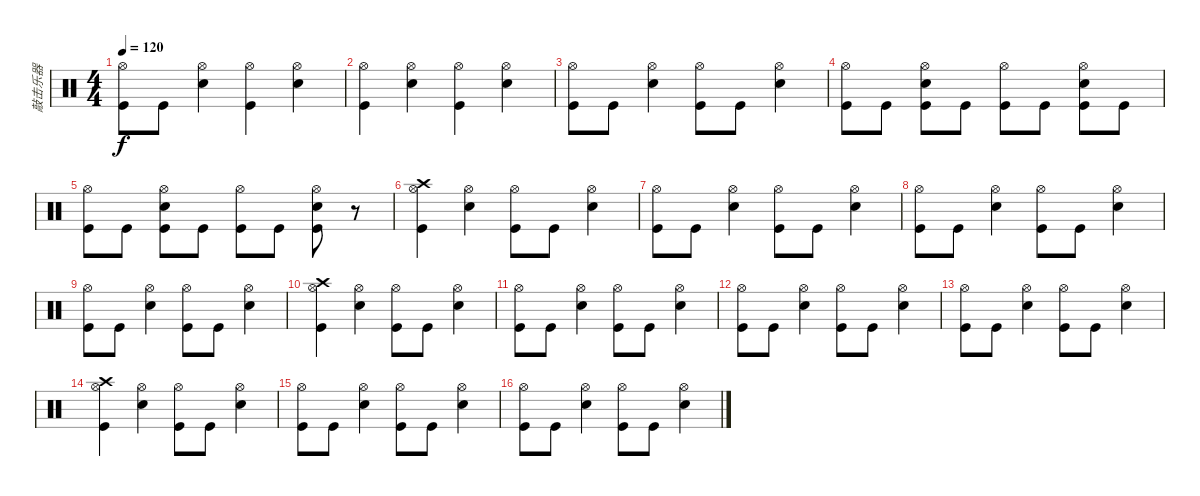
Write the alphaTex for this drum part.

\track ("敲击乐器" "敲击乐器") {instrument percussion}
\staff {score}
\articulation defaults
\ts (4 4)
\tempo 120
\clef neutral
\ks c
("Hi-Hat (open)" "Kick (hit)").8{dy f} "Kick (hit)".8 ("Hi-Hat (open)" "Snare (hit) 2").4 ("Hi-Hat (open)" "Kick (hit)").4 ("Hi-Hat (open)" "Snare (hit) 2").4 |
("Hi-Hat (open)" "Kick (hit)").4 ("Hi-Hat (open)" "Snare (hit) 2").4 ("Hi-Hat (open)" "Kick (hit)").4 ("Hi-Hat (open)" "Snare (hit) 2").4 |
("Hi-Hat (open)" "Kick (hit)").8 "Kick (hit)".8 ("Hi-Hat (open)" "Snare (hit) 2").4 ("Hi-Hat (open)" "Kick (hit)").8 "Kick (hit)".8 ("Hi-Hat (open)" "Snare (hit) 2").4 |
("Hi-Hat (open)" "Kick (hit)").8 "Kick (hit)".8 ("Hi-Hat (open)" "Snare (hit) 2" "Kick (hit)").8 "Kick (hit)".8 ("Hi-Hat (open)" "Kick (hit)").8 "Kick (hit)".8 ("Hi-Hat (open)" "Snare (hit) 2" "Kick (hit)").8 "Kick (hit)".8 |
("Hi-Hat (open)" "Kick (hit)").8 "Kick (hit)".8 ("Hi-Hat (open)" "Snare (hit) 2" "Kick (hit)").8 "Kick (hit)".8 ("Hi-Hat (open)" "Kick (hit)").8 "Kick (hit)".8 ("Hi-Hat (open)" "Snare (hit) 2" "Kick (hit)").8 r.8 |
("Crash high (hit)" "Hi-Hat (open)" "Kick (hit)").4 ("Hi-Hat (open)" "Snare (hit) 2").4 ("Hi-Hat (open)" "Kick (hit)").8 "Kick (hit)".8 ("Hi-Hat (open)" "Snare (hit) 2").4 |
("Hi-Hat (open)" "Kick (hit)").8 "Kick (hit)".8 ("Hi-Hat (open)" "Snare (hit) 2").4 ("Hi-Hat (open)" "Kick (hit)").8 "Kick (hit)".8 ("Hi-Hat (open)" "Snare (hit) 2").4 |
("Hi-Hat (open)" "Kick (hit)").8 "Kick (hit)".8 ("Hi-Hat (open)" "Snare (hit) 2").4 ("Hi-Hat (open)" "Kick (hit)").8 "Kick (hit)".8 ("Hi-Hat (open)" "Snare (hit) 2").4 |
("Hi-Hat (open)" "Kick (hit)").8 "Kick (hit)".8 ("Hi-Hat (open)" "Snare (hit) 2").4 ("Hi-Hat (open)" "Kick (hit)").8 "Kick (hit)".8 ("Hi-Hat (open)" "Snare (hit) 2").4 |
("Crash high (hit)" "Hi-Hat (open)" "Kick (hit)").4 ("Hi-Hat (open)" "Snare (hit) 2").4 ("Hi-Hat (open)" "Kick (hit)").8 "Kick (hit)".8 ("Hi-Hat (open)" "Snare (hit) 2").4 |
("Hi-Hat (open)" "Kick (hit)").8 "Kick (hit)".8 ("Hi-Hat (open)" "Snare (hit) 2").4 ("Hi-Hat (open)" "Kick (hit)").8 "Kick (hit)".8 ("Hi-Hat (open)" "Snare (hit) 2").4 |
("Hi-Hat (open)" "Kick (hit)").8 "Kick (hit)".8 ("Hi-Hat (open)" "Snare (hit) 2").4 ("Hi-Hat (open)" "Kick (hit)").8 "Kick (hit)".8 ("Hi-Hat (open)" "Snare (hit) 2").4 |
("Hi-Hat (open)" "Kick (hit)").8 "Kick (hit)".8 ("Hi-Hat (open)" "Snare (hit) 2").4 ("Hi-Hat (open)" "Kick (hit)").8 "Kick (hit)".8 ("Hi-Hat (open)" "Snare (hit) 2").4 |
("Crash high (hit)" "Hi-Hat (open)" "Kick (hit)").4 ("Hi-Hat (open)" "Snare (hit) 2").4 ("Hi-Hat (open)" "Kick (hit)").8 "Kick (hit)".8 ("Hi-Hat (open)" "Snare (hit) 2").4 |
("Hi-Hat (open)" "Kick (hit)").8 "Kick (hit)".8 ("Hi-Hat (open)" "Snare (hit) 2").4 ("Hi-Hat (open)" "Kick (hit)").8 "Kick (hit)".8 ("Hi-Hat (open)" "Snare (hit) 2").4 |
("Hi-Hat (open)" "Kick (hit)").8 "Kick (hit)".8 ("Hi-Hat (open)" "Snare (hit) 2").4 ("Hi-Hat (open)" "Kick (hit)").8 "Kick (hit)".8 ("Hi-Hat (open)" "Snare (hit) 2").4
